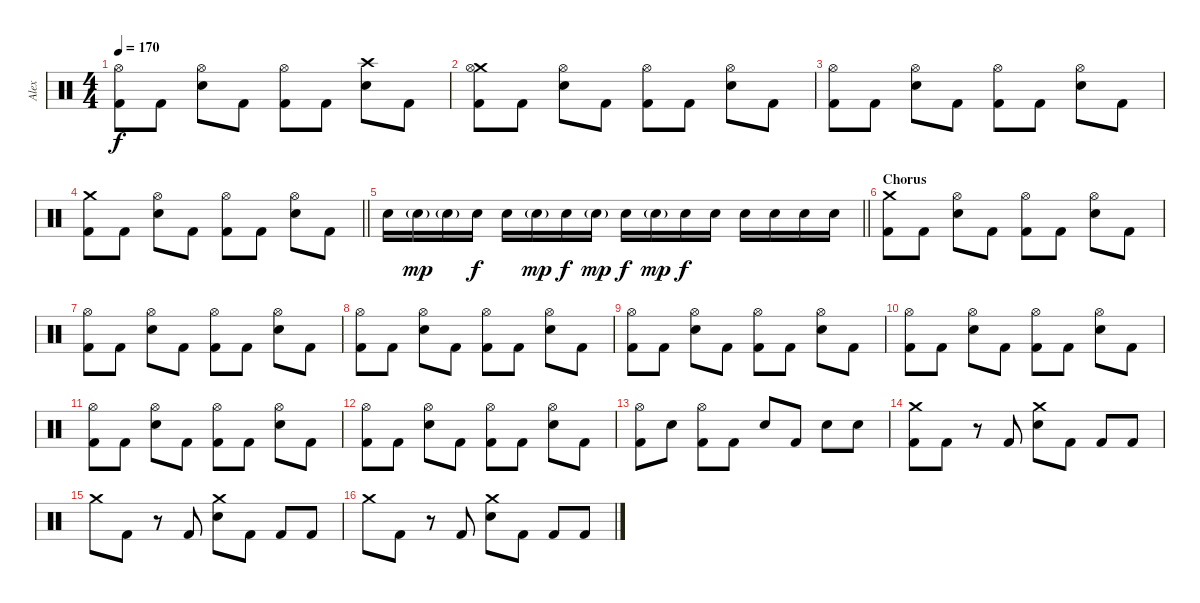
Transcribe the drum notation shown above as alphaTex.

\track ("Alex" "Alex") {instrument percussion}
\staff {score}
\articulation defaults
\ts (4 4)
\tempo 170
\clef neutral
\ks c
("Hi-Hat (open)" "Kick (hit) 2").8{dy f} "Kick (hit) 2".8 ("Hi-Hat (open)" "Electric Snare (hit)").8 "Kick (hit) 2".8 ("Hi-Hat (open)" "Kick (hit) 2").8 "Kick (hit) 2".8 ("Crash high (hit)" "Electric Snare (hit)").8 "Kick (hit) 2".8 |
("Crash medium (hit)" "Hi-Hat (open)" "Kick (hit) 2").8 "Kick (hit) 2".8 ("Hi-Hat (open)" "Electric Snare (hit)").8 "Kick (hit) 2".8 ("Hi-Hat (open)" "Kick (hit) 2").8 "Kick (hit) 2".8 ("Hi-Hat (open)" "Electric Snare (hit)").8 "Kick (hit) 2".8 |
("Hi-Hat (open)" "Kick (hit) 2").8 "Kick (hit) 2".8 ("Hi-Hat (open)" "Electric Snare (hit)").8 "Kick (hit) 2".8 ("Hi-Hat (open)" "Kick (hit) 2").8 "Kick (hit) 2".8 ("Hi-Hat (open)" "Electric Snare (hit)").8 "Kick (hit) 2".8 |
\barLineRight lightlight
("Crash medium (hit)" "Kick (hit) 2").8 "Kick (hit) 2".8 ("Hi-Hat (open)" "Electric Snare (hit)").8 "Kick (hit) 2".8 ("Hi-Hat (open)" "Kick (hit) 2").8 "Kick (hit) 2".8 ("Hi-Hat (open)" "Electric Snare (hit)").8 "Kick (hit) 2".8 |
\barLineRight lightlight "Electric Snare (hit)".16 "Electric Snare (hit)"{g}.16{dy mp} "Electric Snare (hit)"{g}.16 "Electric Snare (hit)".16{dy f} "Electric Snare (hit)".16 "Electric Snare (hit)"{g}.16{dy mp} "Electric Snare (hit)".16{dy f} "Electric Snare (hit)"{g}.16{dy mp} "Electric Snare (hit)".16{dy f} "Electric Snare (hit)"{g}.16{dy mp} "Electric Snare (hit)".16{dy f} "Electric Snare (hit)".16 "Electric Snare (hit)".16 "Electric Snare (hit)".16 "Electric Snare (hit)".16 "Electric Snare (hit)".16
|
\section ("" "Chorus")
("Crash medium (hit)" "Kick (hit) 2").8 "Kick (hit) 2".8 ("Hi-Hat (open)" "Electric Snare (hit)").8 "Kick (hit) 2".8 ("Hi-Hat (open)" "Kick (hit) 2").8 "Kick (hit) 2".8 ("Hi-Hat (open)" "Electric Snare (hit)").8 "Kick (hit) 2".8 |
("Hi-Hat (open)" "Kick (hit) 2").8 "Kick (hit) 2".8 ("Hi-Hat (open)" "Electric Snare (hit)").8 "Kick (hit) 2".8 ("Hi-Hat (open)" "Kick (hit) 2").8 "Kick (hit) 2".8 ("Hi-Hat (open)" "Electric Snare (hit)").8 "Kick (hit) 2".8 |
("Hi-Hat (open)" "Kick (hit) 2").8 "Kick (hit) 2".8 ("Hi-Hat (open)" "Electric Snare (hit)").8 "Kick (hit) 2".8 ("Hi-Hat (open)" "Kick (hit) 2").8 "Kick (hit) 2".8 ("Hi-Hat (open)" "Electric Snare (hit)").8 "Kick (hit) 2".8 |
("Hi-Hat (open)" "Kick (hit) 2").8 "Kick (hit) 2".8 ("Hi-Hat (open)" "Electric Snare (hit)").8 "Kick (hit) 2".8 ("Hi-Hat (open)" "Kick (hit) 2").8 "Kick (hit) 2".8 ("Hi-Hat (open)" "Electric Snare (hit)").8 "Kick (hit) 2".8 |
("Hi-Hat (open)" "Kick (hit) 2").8 "Kick (hit) 2".8 ("Hi-Hat (open)" "Electric Snare (hit)").8 "Kick (hit) 2".8 ("Hi-Hat (open)" "Kick (hit) 2").8 "Kick (hit) 2".8 ("Hi-Hat (open)" "Electric Snare (hit)").8 "Kick (hit) 2".8 |
("Hi-Hat (open)" "Kick (hit) 2").8 "Kick (hit) 2".8 ("Hi-Hat (open)" "Electric Snare (hit)").8 "Kick (hit) 2".8 ("Hi-Hat (open)" "Kick (hit) 2").8 "Kick (hit) 2".8 ("Hi-Hat (open)" "Electric Snare (hit)").8 "Kick (hit) 2".8 |
("Hi-Hat (open)" "Kick (hit) 2").8 "Kick (hit) 2".8 ("Hi-Hat (open)" "Electric Snare (hit)").8 "Kick (hit) 2".8 ("Hi-Hat (open)" "Kick (hit) 2").8 "Kick (hit) 2".8 ("Hi-Hat (open)" "Electric Snare (hit)").8 "Kick (hit) 2".8 |
("Hi-Hat (open)" "Kick (hit) 2").8 "Electric Snare (hit)".8 ("Hi-Hat (open)" "Kick (hit) 2").8 "Kick (hit) 2".8 "Electric Snare (hit)".8 "Kick (hit) 2".8 "Electric Snare (hit)".8 "Electric Snare (hit)".8 |
("Crash medium (hit)" "Kick (hit) 2").8 "Kick (hit) 2".8 r.8 "Kick (hit) 2".8 ("Crash medium (hit)" "Electric Snare (hit)").8 "Kick (hit) 2".8 "Kick (hit) 2".8 "Kick (hit) 2".8 |
"Crash medium (hit)".8 "Kick (hit) 2".8 r.8 "Kick (hit) 2".8 ("Crash medium (hit)" "Electric Snare (hit)").8 "Kick (hit) 2".8 "Kick (hit) 2".8 "Kick (hit) 2".8 |
"Crash medium (hit)".8 "Kick (hit) 2".8 r.8 "Kick (hit) 2".8 ("Crash medium (hit)" "Electric Snare (hit)").8 "Kick (hit) 2".8 "Kick (hit) 2".8 "Kick (hit) 2".8
